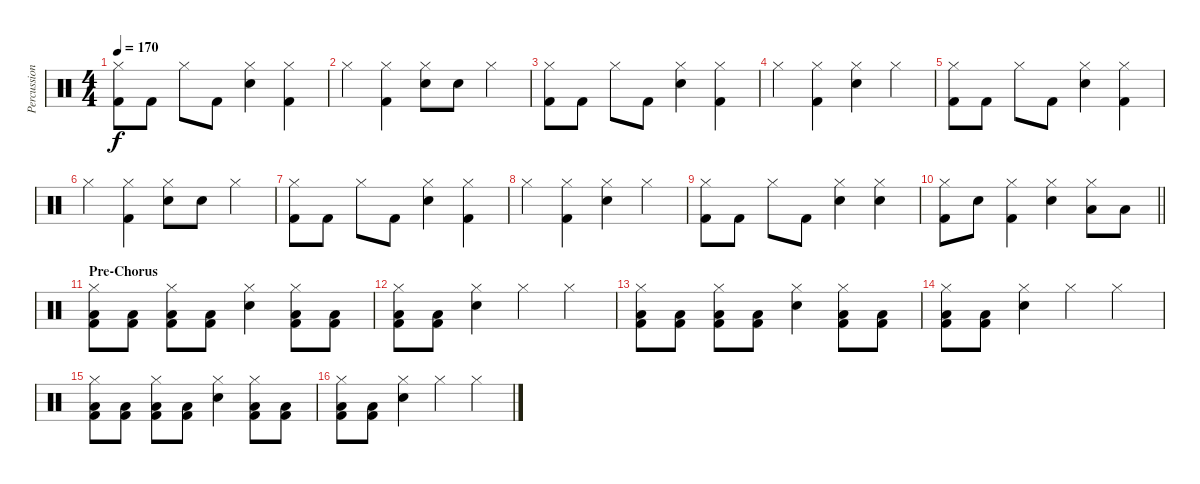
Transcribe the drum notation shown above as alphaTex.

\track ("Percussion" "Percussion") {instrument percussion}
\staff {score}
\articulation defaults
\ts (4 4)
\tempo 170
\clef neutral
\ks c
("Hi-Hat (closed)" "Kick (hit) 2").8{dy f} "Kick (hit) 2".8 "Hi-Hat (closed)".8 "Kick (hit) 2".8 ("Hi-Hat (closed)" "Electric Snare (hit)").4 ("Hi-Hat (closed)" "Kick (hit) 2").4 |
"Hi-Hat (closed)".4 ("Hi-Hat (closed)" "Kick (hit) 2").4 ("Hi-Hat (closed)" "Electric Snare (hit)").8 "Electric Snare (hit)".8 "Hi-Hat (closed)".4 |
("Hi-Hat (closed)" "Kick (hit) 2").8 "Kick (hit) 2".8 "Hi-Hat (closed)".8 "Kick (hit) 2".8 ("Hi-Hat (closed)" "Electric Snare (hit)").4 ("Hi-Hat (closed)" "Kick (hit) 2").4 |
"Hi-Hat (closed)".4 ("Hi-Hat (closed)" "Kick (hit) 2").4 ("Hi-Hat (closed)" "Electric Snare (hit)").4 "Hi-Hat (closed)".4 |
("Hi-Hat (closed)" "Kick (hit) 2").8 "Kick (hit) 2".8 "Hi-Hat (closed)".8 "Kick (hit) 2".8 ("Hi-Hat (closed)" "Electric Snare (hit)").4 ("Hi-Hat (closed)" "Kick (hit) 2").4 |
"Hi-Hat (closed)".4 ("Hi-Hat (closed)" "Kick (hit) 2").4 ("Hi-Hat (closed)" "Electric Snare (hit)").8 "Electric Snare (hit)".8 "Hi-Hat (closed)".4 |
("Hi-Hat (closed)" "Kick (hit) 2").8 "Kick (hit) 2".8 "Hi-Hat (closed)".8 "Kick (hit) 2".8 ("Hi-Hat (closed)" "Electric Snare (hit)").4 ("Hi-Hat (closed)" "Kick (hit) 2").4 |
"Hi-Hat (closed)".4 ("Hi-Hat (closed)" "Kick (hit) 2").4 ("Hi-Hat (closed)" "Electric Snare (hit)").4 "Hi-Hat (closed)".4 |
("Hi-Hat (closed)" "Kick (hit) 2").8 "Kick (hit) 2".8 "Hi-Hat (closed)".8 "Kick (hit) 2".8 ("Hi-Hat (closed)" "Electric Snare (hit)").4 ("Hi-Hat (closed)" "Electric Snare (hit)").4 |
\barLineRight lightlight
("Hi-Hat (closed)" "Kick (hit) 2").8 "Electric Snare (hit)".8 ("Hi-Hat (closed)" "Kick (hit) 2").4 ("Hi-Hat (closed)" "Electric Snare (hit)").4 ("Hi-Hat (closed)" "Low Floor Tom (hit)").8 "Low Floor Tom (hit)".8 |
\section ("" "Pre-Chorus")
("Hi-Hat (closed)" "Low Floor Tom (hit)" "Kick (hit) 2").8 ("Low Floor Tom (hit)" "Kick (hit) 2").8 ("Hi-Hat (closed)" "Low Floor Tom (hit)" "Kick (hit) 2").8 ("Low Floor Tom (hit)" "Kick (hit) 2").8 ("Hi-Hat (closed)" "Electric Snare (hit)").4 ("Hi-Hat (closed)" "Low Floor Tom (hit)" "Kick (hit) 2").8 ("Low Floor Tom (hit)" "Kick (hit) 2").8 |
("Hi-Hat (closed)" "Low Floor Tom (hit)" "Kick (hit) 2").8 ("Low Floor Tom (hit)" "Kick (hit) 2").8 ("Hi-Hat (closed)" "Electric Snare (hit)").4 "Hi-Hat (closed)".4 "Hi-Hat (closed)".4 |
("Hi-Hat (closed)" "Low Floor Tom (hit)" "Kick (hit) 2").8 ("Low Floor Tom (hit)" "Kick (hit) 2").8 ("Hi-Hat (closed)" "Low Floor Tom (hit)" "Kick (hit) 2").8 ("Low Floor Tom (hit)" "Kick (hit) 2").8 ("Hi-Hat (closed)" "Electric Snare (hit)").4 ("Hi-Hat (closed)" "Low Floor Tom (hit)" "Kick (hit) 2").8 ("Low Floor Tom (hit)" "Kick (hit) 2").8 |
("Hi-Hat (closed)" "Low Floor Tom (hit)" "Kick (hit) 2").8 ("Low Floor Tom (hit)" "Kick (hit) 2").8 ("Hi-Hat (closed)" "Electric Snare (hit)").4 "Hi-Hat (closed)".4 "Hi-Hat (closed)".4 |
("Hi-Hat (closed)" "Low Floor Tom (hit)" "Kick (hit) 2").8 ("Low Floor Tom (hit)" "Kick (hit) 2").8 ("Hi-Hat (closed)" "Low Floor Tom (hit)" "Kick (hit) 2").8 ("Low Floor Tom (hit)" "Kick (hit) 2").8 ("Hi-Hat (closed)" "Electric Snare (hit)").4 ("Hi-Hat (closed)" "Low Floor Tom (hit)" "Kick (hit) 2").8 ("Low Floor Tom (hit)" "Kick (hit) 2").8 |
("Hi-Hat (closed)" "Low Floor Tom (hit)" "Kick (hit) 2").8 ("Low Floor Tom (hit)" "Kick (hit) 2").8 ("Hi-Hat (closed)" "Electric Snare (hit)").4 "Hi-Hat (closed)".4 "Hi-Hat (closed)".4
